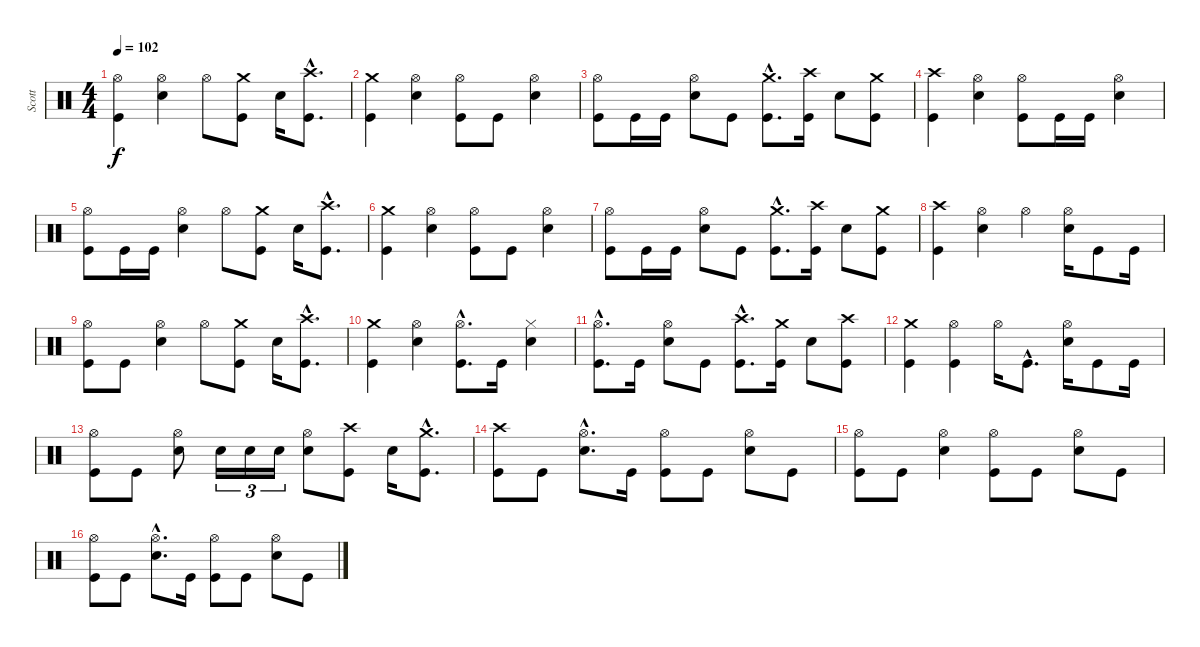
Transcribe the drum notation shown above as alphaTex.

\track ("Scott" "Scott") {instrument percussion}
\staff {score}
\articulation defaults
\ts (4 4)
\tempo 102
\clef neutral
\ks c
("Kick (hit)" "Hi-Hat (open)").4{dy f} ("Snare (hit) 2" "Hi-Hat (open)").4 "Hi-Hat (open)".8 ("Kick (hit)" "Crash medium (hit)").8 "Snare (hit) 2".16 ("Kick (hit)"{hac} "Crash high (hit)"{hac}).8{d} |
("Kick (hit)" "Crash medium (hit)").4 ("Snare (hit) 2" "Hi-Hat (open)").4 ("Kick (hit)" "Hi-Hat (open)").8 "Kick (hit)".8 ("Snare (hit) 2" "Hi-Hat (open)").4 |
("Kick (hit)" "Hi-Hat (open)").8 "Kick (hit)".16 "Kick (hit)".16 ("Snare (hit) 2" "Hi-Hat (open)").8 "Kick (hit)".8 ("Kick (hit)"{hac} "Crash medium (hit)"{hac}).8{d} ("Kick (hit)" "Crash high (hit)").16 "Snare (hit) 2".8 ("Kick (hit)" "Crash medium (hit)").8 |
("Kick (hit)" "Crash high (hit)").4 ("Snare (hit) 2" "Hi-Hat (open)").4 ("Kick (hit)" "Hi-Hat (open)").8 "Kick (hit)".16 "Kick (hit)".16 ("Snare (hit) 2" "Hi-Hat (open)").4 |
("Kick (hit)" "Hi-Hat (open)").8 "Kick (hit)".16 "Kick (hit)".16 ("Snare (hit) 2" "Hi-Hat (open)").4 "Hi-Hat (open)".8 ("Kick (hit)" "Crash medium (hit)").8 "Snare (hit) 2".16 ("Kick (hit)"{hac} "Crash high (hit)"{hac}).8{d} |
("Kick (hit)" "Crash medium (hit)").4 ("Snare (hit) 2" "Hi-Hat (open)").4 ("Kick (hit)" "Hi-Hat (open)").8 "Kick (hit)".8 ("Snare (hit) 2" "Hi-Hat (open)").4 |
("Kick (hit)" "Hi-Hat (open)").8 "Kick (hit)".16 "Kick (hit)".16 ("Snare (hit) 2" "Hi-Hat (open)").8 "Kick (hit)".8 ("Kick (hit)"{hac} "Crash medium (hit)"{hac}).8{d} ("Kick (hit)" "Crash high (hit)").16 "Snare (hit) 2".8 ("Kick (hit)" "Crash medium (hit)").8 |
("Kick (hit)" "Crash high (hit)").4 ("Snare (hit) 2" "Hi-Hat (open)").4 "Hi-Hat (open)".4 ("Snare (hit) 2" "Hi-Hat (open)").16 "Kick (hit)".8 "Kick (hit)".16 |
("Kick (hit)" "Hi-Hat (open)").8 "Kick (hit)".8 ("Snare (hit) 2" "Hi-Hat (open)").4 "Hi-Hat (open)".8 ("Kick (hit)" "Crash medium (hit)").8 "Snare (hit) 2".16 ("Kick (hit)"{hac} "Crash high (hit)"{hac}).8{d} |
("Kick (hit)" "Crash medium (hit)").4 ("Snare (hit) 2" "Hi-Hat (open)").4 ("Kick (hit)"{hac} "Hi-Hat (open)"{hac}).8{d} "Kick (hit)".16 ("Snare (hit) 2" "Hi-Hat (closed)").4 |
("Kick (hit)"{hac} "Hi-Hat (open)"{hac}).8{d} "Kick (hit)".16 ("Snare (hit) 2" "Hi-Hat (open)").8 "Kick (hit)".8 ("Kick (hit)"{hac} "Crash high (hit)"{hac}).8{d} ("Kick (hit)" "Crash medium (hit)").16 "Snare (hit) 2".8 ("Kick (hit)" "Crash high (hit)").8 |
("Kick (hit)" "Crash medium (hit)").4 ("Kick (hit)" "Hi-Hat (open)").4 "Hi-Hat (open)".16 "Kick (hit)"{hac}.8{d} ("Snare (hit) 2" "Hi-Hat (open)").16 "Kick (hit)".8 "Kick (hit)".16 |
("Kick (hit)" "Hi-Hat (open)").8 "Kick (hit)".8 ("Snare (hit) 2" "Hi-Hat (open)").8 "Snare (hit) 2".16{tu (3 2)} "Snare (hit) 2".16{tu (3 2)} "Snare (hit) 2".16{tu (3 2)} ("Snare (hit) 2" "Hi-Hat (open)").8 ("Kick (hit)" "Crash high (hit)").8 "Snare (hit) 2".16 ("Kick (hit)"{hac} "Crash medium (hit)"{hac}).8{d} |
("Kick (hit)" "Crash high (hit)").8 "Kick (hit)".8 ("Snare (hit) 2"{hac} "Hi-Hat (open)"{hac}).8{d} "Kick (hit)".16 ("Kick (hit)" "Hi-Hat (open)").8 "Kick (hit)".8 ("Snare (hit) 2" "Hi-Hat (open)").8 "Kick (hit)".8 |
("Kick (hit)" "Hi-Hat (open)").8 "Kick (hit)".8 ("Snare (hit) 2" "Hi-Hat (open)").4 ("Kick (hit)" "Hi-Hat (open)").8 "Kick (hit)".8 ("Snare (hit) 2" "Hi-Hat (open)").8 "Kick (hit)".8 |
("Kick (hit)" "Hi-Hat (open)").8 "Kick (hit)".8 ("Snare (hit) 2"{hac} "Hi-Hat (open)"{hac}).8{d} "Kick (hit)".16 ("Kick (hit)" "Hi-Hat (open)").8 "Kick (hit)".8 ("Snare (hit) 2" "Hi-Hat (open)").8 "Kick (hit)".8
